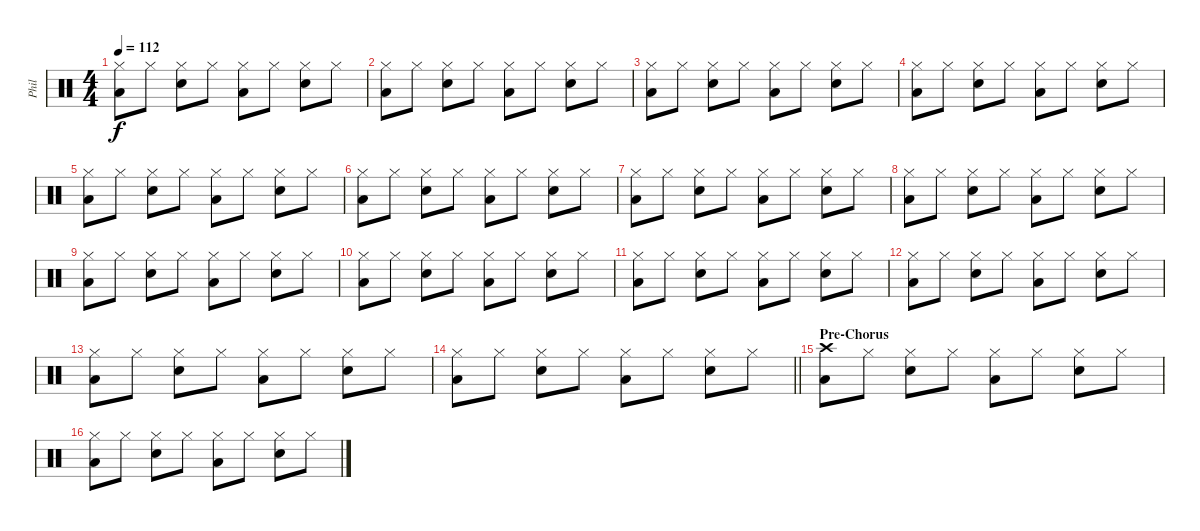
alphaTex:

\track ("Phil" "Phil") {instrument percussion}
\staff {score}
\articulation defaults
\ts (4 4)
\tempo 112
\clef neutral
\ks c
("Hi-Hat (closed)" "Low Floor Tom (hit)").8{dy f} "Hi-Hat (closed)".8 ("Hi-Hat (closed)" "Snare (hit) 2").8 "Hi-Hat (closed)".8 ("Hi-Hat (closed)" "Low Floor Tom (hit)").8 "Hi-Hat (closed)".8 ("Hi-Hat (closed)" "Snare (hit) 2").8 "Hi-Hat (closed)".8 |
("Hi-Hat (closed)" "Low Floor Tom (hit)").8 "Hi-Hat (closed)".8 ("Hi-Hat (closed)" "Snare (hit) 2").8 "Hi-Hat (closed)".8 ("Hi-Hat (closed)" "Low Floor Tom (hit)").8 "Hi-Hat (closed)".8 ("Hi-Hat (closed)" "Snare (hit) 2").8 "Hi-Hat (closed)".8 |
("Hi-Hat (closed)" "Low Floor Tom (hit)").8 "Hi-Hat (closed)".8 ("Hi-Hat (closed)" "Snare (hit) 2").8 "Hi-Hat (closed)".8 ("Hi-Hat (closed)" "Low Floor Tom (hit)").8 "Hi-Hat (closed)".8 ("Hi-Hat (closed)" "Snare (hit) 2").8 "Hi-Hat (closed)".8 |
("Hi-Hat (closed)" "Low Floor Tom (hit)").8 "Hi-Hat (closed)".8 ("Hi-Hat (closed)" "Snare (hit) 2").8 "Hi-Hat (closed)".8 ("Hi-Hat (closed)" "Low Floor Tom (hit)").8 "Hi-Hat (closed)".8 ("Hi-Hat (closed)" "Snare (hit) 2").8 "Hi-Hat (closed)".8 |
("Hi-Hat (closed)" "Low Floor Tom (hit)").8 "Hi-Hat (closed)".8 ("Hi-Hat (closed)" "Snare (hit) 2").8 "Hi-Hat (closed)".8 ("Hi-Hat (closed)" "Low Floor Tom (hit)").8 "Hi-Hat (closed)".8 ("Hi-Hat (closed)" "Snare (hit) 2").8 "Hi-Hat (closed)".8 |
("Hi-Hat (closed)" "Low Floor Tom (hit)").8 "Hi-Hat (closed)".8 ("Hi-Hat (closed)" "Snare (hit) 2").8 "Hi-Hat (closed)".8 ("Hi-Hat (closed)" "Low Floor Tom (hit)").8 "Hi-Hat (closed)".8 ("Hi-Hat (closed)" "Snare (hit) 2").8 "Hi-Hat (closed)".8 |
("Hi-Hat (closed)" "Low Floor Tom (hit)").8 "Hi-Hat (closed)".8 ("Hi-Hat (closed)" "Snare (hit) 2").8 "Hi-Hat (closed)".8 ("Hi-Hat (closed)" "Low Floor Tom (hit)").8 "Hi-Hat (closed)".8 ("Hi-Hat (closed)" "Snare (hit) 2").8 "Hi-Hat (closed)".8 |
("Hi-Hat (closed)" "Low Floor Tom (hit)").8 "Hi-Hat (closed)".8 ("Hi-Hat (closed)" "Snare (hit) 2").8 "Hi-Hat (closed)".8 ("Hi-Hat (closed)" "Low Floor Tom (hit)").8 "Hi-Hat (closed)".8 ("Hi-Hat (closed)" "Snare (hit) 2").8 "Hi-Hat (closed)".8 |
("Hi-Hat (closed)" "Low Floor Tom (hit)").8 "Hi-Hat (closed)".8 ("Hi-Hat (closed)" "Snare (hit) 2").8 "Hi-Hat (closed)".8 ("Hi-Hat (closed)" "Low Floor Tom (hit)").8 "Hi-Hat (closed)".8 ("Hi-Hat (closed)" "Snare (hit) 2").8 "Hi-Hat (closed)".8 |
("Hi-Hat (closed)" "Low Floor Tom (hit)").8 "Hi-Hat (closed)".8 ("Hi-Hat (closed)" "Snare (hit) 2").8 "Hi-Hat (closed)".8 ("Hi-Hat (closed)" "Low Floor Tom (hit)").8 "Hi-Hat (closed)".8 ("Hi-Hat (closed)" "Snare (hit) 2").8 "Hi-Hat (closed)".8 |
("Hi-Hat (closed)" "Low Floor Tom (hit)").8 "Hi-Hat (closed)".8 ("Hi-Hat (closed)" "Snare (hit) 2").8 "Hi-Hat (closed)".8 ("Hi-Hat (closed)" "Low Floor Tom (hit)").8 "Hi-Hat (closed)".8 ("Hi-Hat (closed)" "Snare (hit) 2").8 "Hi-Hat (closed)".8 |
("Hi-Hat (closed)" "Low Floor Tom (hit)").8 "Hi-Hat (closed)".8 ("Hi-Hat (closed)" "Snare (hit) 2").8 "Hi-Hat (closed)".8 ("Hi-Hat (closed)" "Low Floor Tom (hit)").8 "Hi-Hat (closed)".8 ("Hi-Hat (closed)" "Snare (hit) 2").8 "Hi-Hat (closed)".8 |
("Hi-Hat (closed)" "Low Floor Tom (hit)").8 "Hi-Hat (closed)".8 ("Hi-Hat (closed)" "Snare (hit) 2").8 "Hi-Hat (closed)".8 ("Hi-Hat (closed)" "Low Floor Tom (hit)").8 "Hi-Hat (closed)".8 ("Hi-Hat (closed)" "Snare (hit) 2").8 "Hi-Hat (closed)".8 |
\barLineRight lightlight
("Hi-Hat (closed)" "Low Floor Tom (hit)").8 "Hi-Hat (closed)".8 ("Hi-Hat (closed)" "Snare (hit) 2").8 "Hi-Hat (closed)".8 ("Hi-Hat (closed)" "Low Floor Tom (hit)").8 "Hi-Hat (closed)".8 ("Hi-Hat (closed)" "Snare (hit) 2").8 "Hi-Hat (closed)".8 |
\section ("" "Pre-Chorus")
("Crash high (hit)" "Low Floor Tom (hit)").8 "Hi-Hat (closed)".8 ("Hi-Hat (closed)" "Snare (hit) 2").8 "Hi-Hat (closed)".8 ("Hi-Hat (closed)" "Low Floor Tom (hit)").8 "Hi-Hat (closed)".8 ("Hi-Hat (closed)" "Snare (hit) 2").8 "Hi-Hat (closed)".8 |
("Hi-Hat (closed)" "Low Floor Tom (hit)").8 "Hi-Hat (closed)".8 ("Hi-Hat (closed)" "Snare (hit) 2").8 "Hi-Hat (closed)".8 ("Hi-Hat (closed)" "Low Floor Tom (hit)").8 "Hi-Hat (closed)".8 ("Hi-Hat (closed)" "Snare (hit) 2").8 "Hi-Hat (closed)".8
